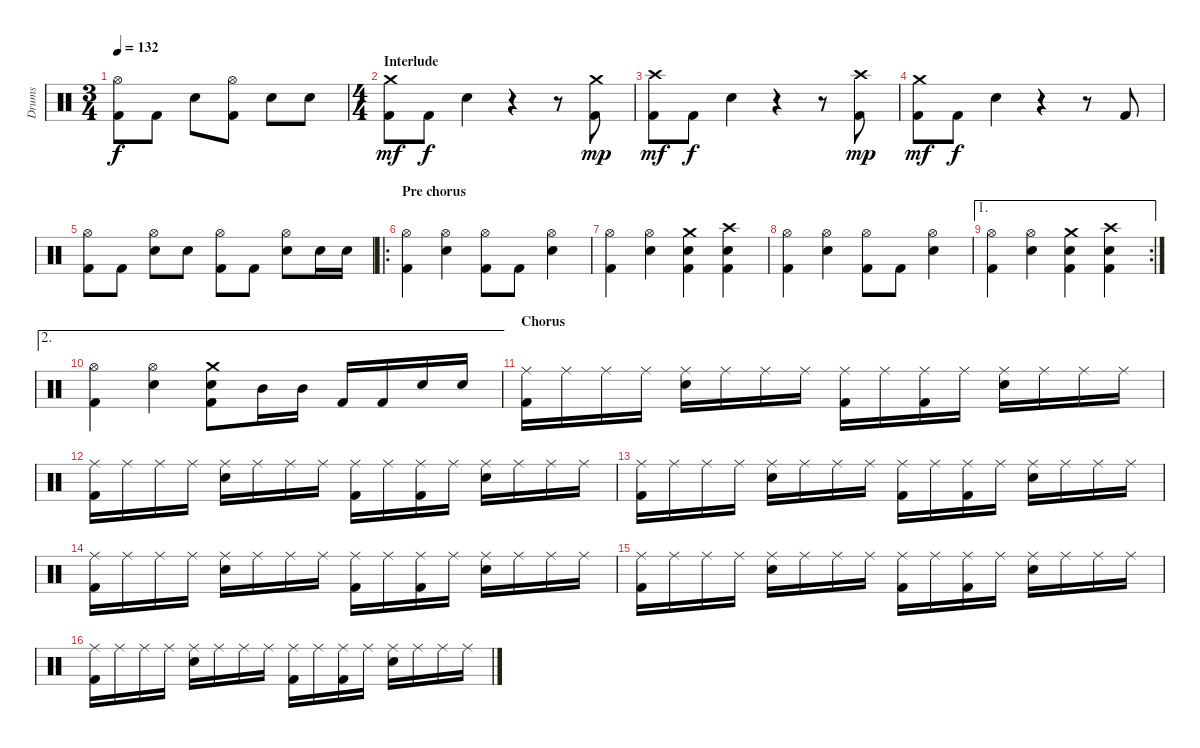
\track ("Drums" "Drums") {instrument percussion}
\staff {score}
\articulation defaults
\ts (3 4)
\tempo 132
\clef neutral
\ks c
("Hi-Hat (open)" "Kick (hit) 2").8{dy f} "Kick (hit) 2".8 "Electric Snare (hit)".8 ("Hi-Hat (open)" "Kick (hit) 2").8 "Electric Snare (hit)".8 "Electric Snare (hit)".8 |
\ts (4 4)
\section ("" "Interlude")
("Crash medium (hit)" "Kick (hit) 2").8{dy mf} "Kick (hit) 2".8{dy f} "Electric Snare (hit)".4 r.4 r.8 ("Crash medium (hit)" "Kick (hit) 2").8{dy mp} |
("Crash high (hit)" "Kick (hit) 2").8{dy mf} "Kick (hit) 2".8{dy f} "Electric Snare (hit)".4 r.4 r.8 ("Crash high (hit)" "Kick (hit) 2").8{dy mp} |
("Crash medium (hit)" "Kick (hit) 2").8{dy mf} "Kick (hit) 2".8{dy f} "Electric Snare (hit)".4 r.4 r.8 "Kick (hit) 2".8 |
("Hi-Hat (open)" "Kick (hit) 2").8 "Kick (hit) 2".8 ("Hi-Hat (open)" "Electric Snare (hit)").8 "Electric Snare (hit)".8 ("Hi-Hat (open)" "Kick (hit) 2").8 "Kick (hit) 2".8 ("Hi-Hat (open)" "Electric Snare (hit)").8 "Electric Snare (hit)".16 "Electric Snare (hit)".16 |
\ro
\section ("" "Pre chorus")
("Hi-Hat (open)" "Kick (hit) 2").4 ("Hi-Hat (open)" "Electric Snare (hit)").4 ("Hi-Hat (open)" "Kick (hit) 2").8 "Kick (hit) 2".8 ("Hi-Hat (open)" "Electric Snare (hit)").4 |
("Hi-Hat (open)" "Kick (hit) 2").4 ("Hi-Hat (open)" "Electric Snare (hit)").4 ("Crash medium (hit)" "Electric Snare (hit)" "Kick (hit) 2").4 ("Crash high (hit)" "Electric Snare (hit)" "Kick (hit) 2").4 |
("Hi-Hat (open)" "Kick (hit) 2").4 ("Hi-Hat (open)" "Electric Snare (hit)").4 ("Hi-Hat (open)" "Kick (hit) 2").8 "Kick (hit) 2".8 ("Hi-Hat (open)" "Electric Snare (hit)").4 |
\ae 1
\rc 2
("Hi-Hat (open)" "Kick (hit) 2").4 ("Hi-Hat (open)" "Electric Snare (hit)").4 ("Crash medium (hit)" "Electric Snare (hit)" "Kick (hit) 2").4 ("Crash high (hit)" "Electric Snare (hit)" "Kick (hit) 2").4 |
\ae 2
("Hi-Hat (open)" "Kick (hit) 2").4 ("Hi-Hat (open)" "Electric Snare (hit)").4 ("Crash medium (hit)" "Electric Snare (hit)" "Kick (hit) 2").8 "Mid Tom (hit)".16 "Mid Tom (hit)".16 "Kick (hit) 2".16 "Kick (hit) 2".16 "Electric Snare (hit)".16 "Electric Snare (hit)".16 |
\section ("" "Chorus")
("Ride (middle)" "Kick (hit) 2").16 "Ride (middle)".16 "Ride (middle)".16 "Ride (middle)".16 ("Ride (middle)" "Electric Snare (hit)").16 "Ride (middle)".16 "Ride (middle)".16 "Ride (middle)".16 ("Ride (middle)" "Kick (hit) 2").16 "Ride (middle)".16 ("Ride (middle)" "Kick (hit) 2").16 "Ride (middle)".16 ("Ride (middle)" "Electric Snare (hit)").16 "Ride (middle)".16 "Ride (middle)".16 "Ride (middle)".16 |
("Ride (middle)" "Kick (hit) 2").16 "Ride (middle)".16 "Ride (middle)".16 "Ride (middle)".16 ("Ride (middle)" "Electric Snare (hit)").16 "Ride (middle)".16 "Ride (middle)".16 "Ride (middle)".16 ("Ride (middle)" "Kick (hit) 2").16 "Ride (middle)".16 ("Ride (middle)" "Kick (hit) 2").16 "Ride (middle)".16 ("Ride (middle)" "Electric Snare (hit)").16 "Ride (middle)".16 "Ride (middle)".16 "Ride (middle)".16 |
("Ride (middle)" "Kick (hit) 2").16 "Ride (middle)".16 "Ride (middle)".16 "Ride (middle)".16 ("Ride (middle)" "Electric Snare (hit)").16 "Ride (middle)".16 "Ride (middle)".16 "Ride (middle)".16 ("Ride (middle)" "Kick (hit) 2").16 "Ride (middle)".16 ("Ride (middle)" "Kick (hit) 2").16 "Ride (middle)".16 ("Ride (middle)" "Electric Snare (hit)").16 "Ride (middle)".16 "Ride (middle)".16 "Ride (middle)".16 |
("Ride (middle)" "Kick (hit) 2").16 "Ride (middle)".16 "Ride (middle)".16 "Ride (middle)".16 ("Ride (middle)" "Electric Snare (hit)").16 "Ride (middle)".16 "Ride (middle)".16 "Ride (middle)".16 ("Ride (middle)" "Kick (hit) 2").16 "Ride (middle)".16 ("Ride (middle)" "Kick (hit) 2").16 "Ride (middle)".16 ("Ride (middle)" "Electric Snare (hit)").16 "Ride (middle)".16 "Ride (middle)".16 "Ride (middle)".16 |
("Ride (middle)" "Kick (hit) 2").16 "Ride (middle)".16 "Ride (middle)".16 "Ride (middle)".16 ("Ride (middle)" "Electric Snare (hit)").16 "Ride (middle)".16 "Ride (middle)".16 "Ride (middle)".16 ("Ride (middle)" "Kick (hit) 2").16 "Ride (middle)".16 ("Ride (middle)" "Kick (hit) 2").16 "Ride (middle)".16 ("Ride (middle)" "Electric Snare (hit)").16 "Ride (middle)".16 "Ride (middle)".16 "Ride (middle)".16 |
("Ride (middle)" "Kick (hit) 2").16 "Ride (middle)".16 "Ride (middle)".16 "Ride (middle)".16 ("Ride (middle)" "Electric Snare (hit)").16 "Ride (middle)".16 "Ride (middle)".16 "Ride (middle)".16 ("Ride (middle)" "Kick (hit) 2").16 "Ride (middle)".16 ("Ride (middle)" "Kick (hit) 2").16 "Ride (middle)".16 ("Ride (middle)" "Electric Snare (hit)").16 "Ride (middle)".16 "Ride (middle)".16 "Ride (middle)".16
